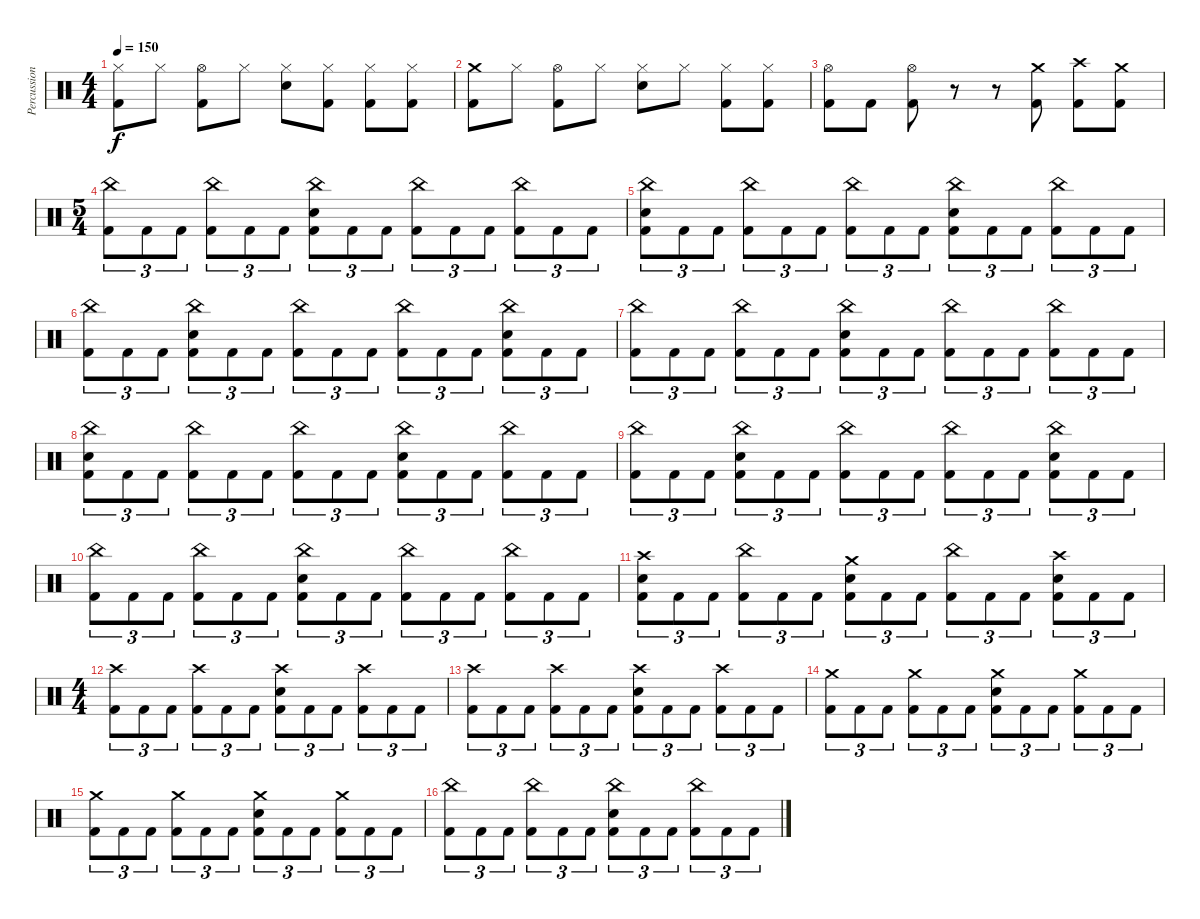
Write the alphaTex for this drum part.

\track ("Percussion" "Percussion") {instrument percussion}
\staff {score}
\articulation defaults
\ts (4 4)
\tempo 150
\clef neutral
\ks c
("Hi-Hat (closed)" "Kick (hit) 2").8{dy f} "Hi-Hat (closed)".8 ("Hi-Hat (open)" "Kick (hit) 2").8 "Hi-Hat (closed)".8 ("Hi-Hat (closed)" "Snare (hit) 2").8 ("Hi-Hat (closed)" "Kick (hit) 2").8 ("Hi-Hat (closed)" "Kick (hit) 2").8 ("Hi-Hat (closed)" "Kick (hit) 2").8 |
("Crash medium (hit)" "Kick (hit) 2").8 "Hi-Hat (closed)".8 ("Hi-Hat (open)" "Kick (hit) 2").8 "Hi-Hat (closed)".8 ("Hi-Hat (closed)" "Snare (hit) 2").8 "Hi-Hat (closed)".8 ("Hi-Hat (closed)" "Kick (hit) 2").8 ("Hi-Hat (closed)" "Kick (hit) 2").8 |
("Hi-Hat (open)" "Kick (hit) 2").8 "Kick (hit) 2".8 ("Hi-Hat (open)" "Kick (hit) 2").8 r.8 r.8 ("Crash medium (hit)" "Kick (hit) 2").8 ("Crash high (hit)" "Kick (hit) 2").8 ("Crash medium (hit)" "Kick (hit) 2").8 |
\ts (5 4)
("China (hit)" "Kick (hit) 2").8{tu (3 2)} "Kick (hit) 2".8{tu (3 2)} "Kick (hit) 2".8{tu (3 2)} ("China (hit)" "Kick (hit) 2").8{tu (3 2)} "Kick (hit) 2".8{tu (3 2)} "Kick (hit) 2".8{tu (3 2)} ("China (hit)" "Snare (hit) 2" "Kick (hit) 2").8{tu (3 2)} "Kick (hit) 2".8{tu (3 2)} "Kick (hit) 2".8{tu (3 2)} ("China (hit)" "Kick (hit) 2").8{tu (3 2)} "Kick (hit) 2".8{tu (3 2)} "Kick (hit) 2".8{tu (3 2)} ("China (hit)" "Kick (hit) 2").8{tu (3 2)} "Kick (hit) 2".8{tu (3 2)} "Kick (hit) 2".8{tu (3 2)} |
("China (hit)" "Snare (hit) 2" "Kick (hit) 2").8{tu (3 2)} "Kick (hit) 2".8{tu (3 2)} "Kick (hit) 2".8{tu (3 2)} ("China (hit)" "Kick (hit) 2").8{tu (3 2)} "Kick (hit) 2".8{tu (3 2)} "Kick (hit) 2".8{tu (3 2)} ("China (hit)" "Kick (hit) 2").8{tu (3 2)} "Kick (hit) 2".8{tu (3 2)} "Kick (hit) 2".8{tu (3 2)} ("China (hit)" "Snare (hit) 2" "Kick (hit) 2").8{tu (3 2)} "Kick (hit) 2".8{tu (3 2)} "Kick (hit) 2".8{tu (3 2)} ("China (hit)" "Kick (hit) 2").8{tu (3 2)} "Kick (hit) 2".8{tu (3 2)} "Kick (hit) 2".8{tu (3 2)} |
("China (hit)" "Kick (hit) 2").8{tu (3 2)} "Kick (hit) 2".8{tu (3 2)} "Kick (hit) 2".8{tu (3 2)} ("China (hit)" "Snare (hit) 2" "Kick (hit) 2").8{tu (3 2)} "Kick (hit) 2".8{tu (3 2)} "Kick (hit) 2".8{tu (3 2)} ("China (hit)" "Kick (hit) 2").8{tu (3 2)} "Kick (hit) 2".8{tu (3 2)} "Kick (hit) 2".8{tu (3 2)} ("China (hit)" "Kick (hit) 2").8{tu (3 2)} "Kick (hit) 2".8{tu (3 2)} "Kick (hit) 2".8{tu (3 2)} ("China (hit)" "Snare (hit) 2" "Kick (hit) 2").8{tu (3 2)} "Kick (hit) 2".8{tu (3 2)} "Kick (hit) 2".8{tu (3 2)} |
("China (hit)" "Kick (hit) 2").8{tu (3 2)} "Kick (hit) 2".8{tu (3 2)} "Kick (hit) 2".8{tu (3 2)} ("China (hit)" "Kick (hit) 2").8{tu (3 2)} "Kick (hit) 2".8{tu (3 2)} "Kick (hit) 2".8{tu (3 2)} ("China (hit)" "Snare (hit) 2" "Kick (hit) 2").8{tu (3 2)} "Kick (hit) 2".8{tu (3 2)} "Kick (hit) 2".8{tu (3 2)} ("China (hit)" "Kick (hit) 2").8{tu (3 2)} "Kick (hit) 2".8{tu (3 2)} "Kick (hit) 2".8{tu (3 2)} ("China (hit)" "Kick (hit) 2").8{tu (3 2)} "Kick (hit) 2".8{tu (3 2)} "Kick (hit) 2".8{tu (3 2)} |
("China (hit)" "Snare (hit) 2" "Kick (hit) 2").8{tu (3 2)} "Kick (hit) 2".8{tu (3 2)} "Kick (hit) 2".8{tu (3 2)} ("China (hit)" "Kick (hit) 2").8{tu (3 2)} "Kick (hit) 2".8{tu (3 2)} "Kick (hit) 2".8{tu (3 2)} ("China (hit)" "Kick (hit) 2").8{tu (3 2)} "Kick (hit) 2".8{tu (3 2)} "Kick (hit) 2".8{tu (3 2)} ("China (hit)" "Snare (hit) 2" "Kick (hit) 2").8{tu (3 2)} "Kick (hit) 2".8{tu (3 2)} "Kick (hit) 2".8{tu (3 2)} ("China (hit)" "Kick (hit) 2").8{tu (3 2)} "Kick (hit) 2".8{tu (3 2)} "Kick (hit) 2".8{tu (3 2)} |
("China (hit)" "Kick (hit) 2").8{tu (3 2)} "Kick (hit) 2".8{tu (3 2)} "Kick (hit) 2".8{tu (3 2)} ("China (hit)" "Snare (hit) 2" "Kick (hit) 2").8{tu (3 2)} "Kick (hit) 2".8{tu (3 2)} "Kick (hit) 2".8{tu (3 2)} ("China (hit)" "Kick (hit) 2").8{tu (3 2)} "Kick (hit) 2".8{tu (3 2)} "Kick (hit) 2".8{tu (3 2)} ("China (hit)" "Kick (hit) 2").8{tu (3 2)} "Kick (hit) 2".8{tu (3 2)} "Kick (hit) 2".8{tu (3 2)} ("China (hit)" "Snare (hit) 2" "Kick (hit) 2").8{tu (3 2)} "Kick (hit) 2".8{tu (3 2)} "Kick (hit) 2".8{tu (3 2)} |
("China (hit)" "Kick (hit) 2").8{tu (3 2)} "Kick (hit) 2".8{tu (3 2)} "Kick (hit) 2".8{tu (3 2)} ("China (hit)" "Kick (hit) 2").8{tu (3 2)} "Kick (hit) 2".8{tu (3 2)} "Kick (hit) 2".8{tu (3 2)} ("China (hit)" "Snare (hit) 2" "Kick (hit) 2").8{tu (3 2)} "Kick (hit) 2".8{tu (3 2)} "Kick (hit) 2".8{tu (3 2)} ("China (hit)" "Kick (hit) 2").8{tu (3 2)} "Kick (hit) 2".8{tu (3 2)} "Kick (hit) 2".8{tu (3 2)} ("China (hit)" "Kick (hit) 2").8{tu (3 2)} "Kick (hit) 2".8{tu (3 2)} "Kick (hit) 2".8{tu (3 2)} |
("Crash high (hit)" "Snare (hit) 2" "Kick (hit) 2").8{tu (3 2)} "Kick (hit) 2".8{tu (3 2)} "Kick (hit) 2".8{tu (3 2)} ("China (hit)" "Kick (hit) 2").8{tu (3 2)} "Kick (hit) 2".8{tu (3 2)} "Kick (hit) 2".8{tu (3 2)} ("Crash medium (hit)" "Snare (hit) 2" "Kick (hit) 2").8{tu (3 2)} "Kick (hit) 2".8{tu (3 2)} "Kick (hit) 2".8{tu (3 2)} ("China (hit)" "Kick (hit) 2").8{tu (3 2)} "Kick (hit) 2".8{tu (3 2)} "Kick (hit) 2".8{tu (3 2)} ("Crash high (hit)" "Snare (hit) 2" "Kick (hit) 2").8{tu (3 2)} "Kick (hit) 2".8{tu (3 2)} "Kick (hit) 2".8{tu (3 2)} |
\ts (4 4)
("Crash high (hit)" "Kick (hit) 2").8{tu (3 2)} "Kick (hit) 2".8{tu (3 2)} "Kick (hit) 2".8{tu (3 2)} ("Crash high (hit)" "Kick (hit) 2").8{tu (3 2)} "Kick (hit) 2".8{tu (3 2)} "Kick (hit) 2".8{tu (3 2)} ("Crash high (hit)" "Snare (hit) 2" "Kick (hit) 2").8{tu (3 2)} "Kick (hit) 2".8{tu (3 2)} "Kick (hit) 2".8{tu (3 2)} ("Crash high (hit)" "Kick (hit) 2").8{tu (3 2)} "Kick (hit) 2".8{tu (3 2)} "Kick (hit) 2".8{tu (3 2)} |
("Crash high (hit)" "Kick (hit) 2").8{tu (3 2)} "Kick (hit) 2".8{tu (3 2)} "Kick (hit) 2".8{tu (3 2)} ("Crash high (hit)" "Kick (hit) 2").8{tu (3 2)} "Kick (hit) 2".8{tu (3 2)} "Kick (hit) 2".8{tu (3 2)} ("Crash high (hit)" "Snare (hit) 2" "Kick (hit) 2").8{tu (3 2)} "Kick (hit) 2".8{tu (3 2)} "Kick (hit) 2".8{tu (3 2)} ("Crash high (hit)" "Kick (hit) 2").8{tu (3 2)} "Kick (hit) 2".8{tu (3 2)} "Kick (hit) 2".8{tu (3 2)} |
("Crash medium (hit)" "Kick (hit) 2").8{tu (3 2)} "Kick (hit) 2".8{tu (3 2)} "Kick (hit) 2".8{tu (3 2)} ("Crash medium (hit)" "Kick (hit) 2").8{tu (3 2)} "Kick (hit) 2".8{tu (3 2)} "Kick (hit) 2".8{tu (3 2)} ("Crash medium (hit)" "Snare (hit) 2" "Kick (hit) 2").8{tu (3 2)} "Kick (hit) 2".8{tu (3 2)} "Kick (hit) 2".8{tu (3 2)} ("Crash medium (hit)" "Kick (hit) 2").8{tu (3 2)} "Kick (hit) 2".8{tu (3 2)} "Kick (hit) 2".8{tu (3 2)} |
("Crash medium (hit)" "Kick (hit) 2").8{tu (3 2)} "Kick (hit) 2".8{tu (3 2)} "Kick (hit) 2".8{tu (3 2)} ("Crash medium (hit)" "Kick (hit) 2").8{tu (3 2)} "Kick (hit) 2".8{tu (3 2)} "Kick (hit) 2".8{tu (3 2)} ("Crash medium (hit)" "Snare (hit) 2" "Kick (hit) 2").8{tu (3 2)} "Kick (hit) 2".8{tu (3 2)} "Kick (hit) 2".8{tu (3 2)} ("Crash medium (hit)" "Kick (hit) 2").8{tu (3 2)} "Kick (hit) 2".8{tu (3 2)} "Kick (hit) 2".8{tu (3 2)} |
("China (hit)" "Kick (hit) 2").8{tu (3 2)} "Kick (hit) 2".8{tu (3 2)} "Kick (hit) 2".8{tu (3 2)} ("China (hit)" "Kick (hit) 2").8{tu (3 2)} "Kick (hit) 2".8{tu (3 2)} "Kick (hit) 2".8{tu (3 2)} ("China (hit)" "Snare (hit) 2" "Kick (hit) 2").8{tu (3 2)} "Kick (hit) 2".8{tu (3 2)} "Kick (hit) 2".8{tu (3 2)} ("China (hit)" "Kick (hit) 2").8{tu (3 2)} "Kick (hit) 2".8{tu (3 2)} "Kick (hit) 2".8{tu (3 2)}
